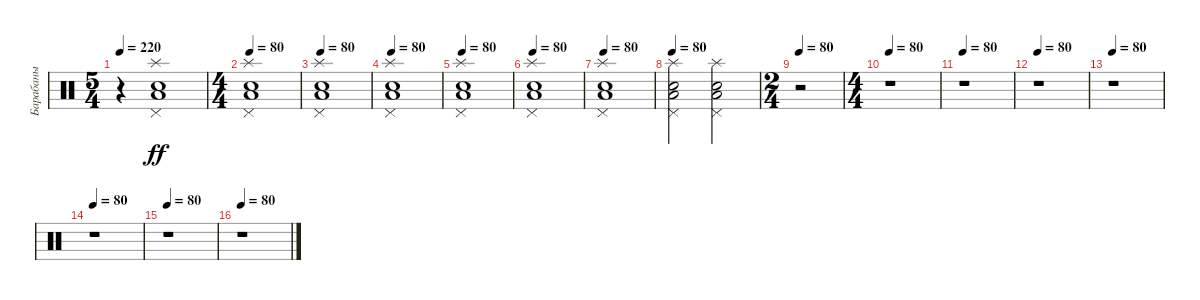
\track ("Барабаны" "Барабаны") {instrument percussion}
\staff {score}
\articulation defaults
\ts (5 4)
\tempo 220
\tempo 80
\tempo 220
\clef neutral
\ks c
r.4{dy ff} ("Electric Snare (hit)" "Low Floor Tom (hit)" "Pedal Hi-Hat (hit)" "Splash (hit)").1 |
\ts (4 4)
\tempo 80
("Electric Snare (hit)" "Low Floor Tom (hit)" "Pedal Hi-Hat (hit)" "Splash (hit)").1 |
\tempo 80
("Electric Snare (hit)" "Low Floor Tom (hit)" "Pedal Hi-Hat (hit)" "Splash (hit)").1 |
\tempo 80
("Electric Snare (hit)" "Low Floor Tom (hit)" "Pedal Hi-Hat (hit)" "Splash (hit)").1 |
\tempo 80
("Electric Snare (hit)" "Low Floor Tom (hit)" "Pedal Hi-Hat (hit)" "Splash (hit)").1 |
\tempo 80
("Electric Snare (hit)" "Low Floor Tom (hit)" "Pedal Hi-Hat (hit)" "Splash (hit)").1 |
\tempo 80
("Electric Snare (hit)" "Low Floor Tom (hit)" "Pedal Hi-Hat (hit)" "Splash (hit)").1 |
\tempo 80
("Electric Snare (hit)" "Low Floor Tom (hit)" "Pedal Hi-Hat (hit)" "Splash (hit)").2 ("Electric Snare (hit)" "Low Floor Tom (hit)" "Pedal Hi-Hat (hit)" "Splash (hit)").2 |
\ts (2 4)
\tempo 80
r.2 |
\ts (4 4)
\tempo 80
r.1 |
\tempo 80
r.1 |
\tempo 80
r.1 |
\tempo 80
r.1 |
\tempo 80
r.1 |
\tempo 80
r.1 |
\tempo 80
r.1
